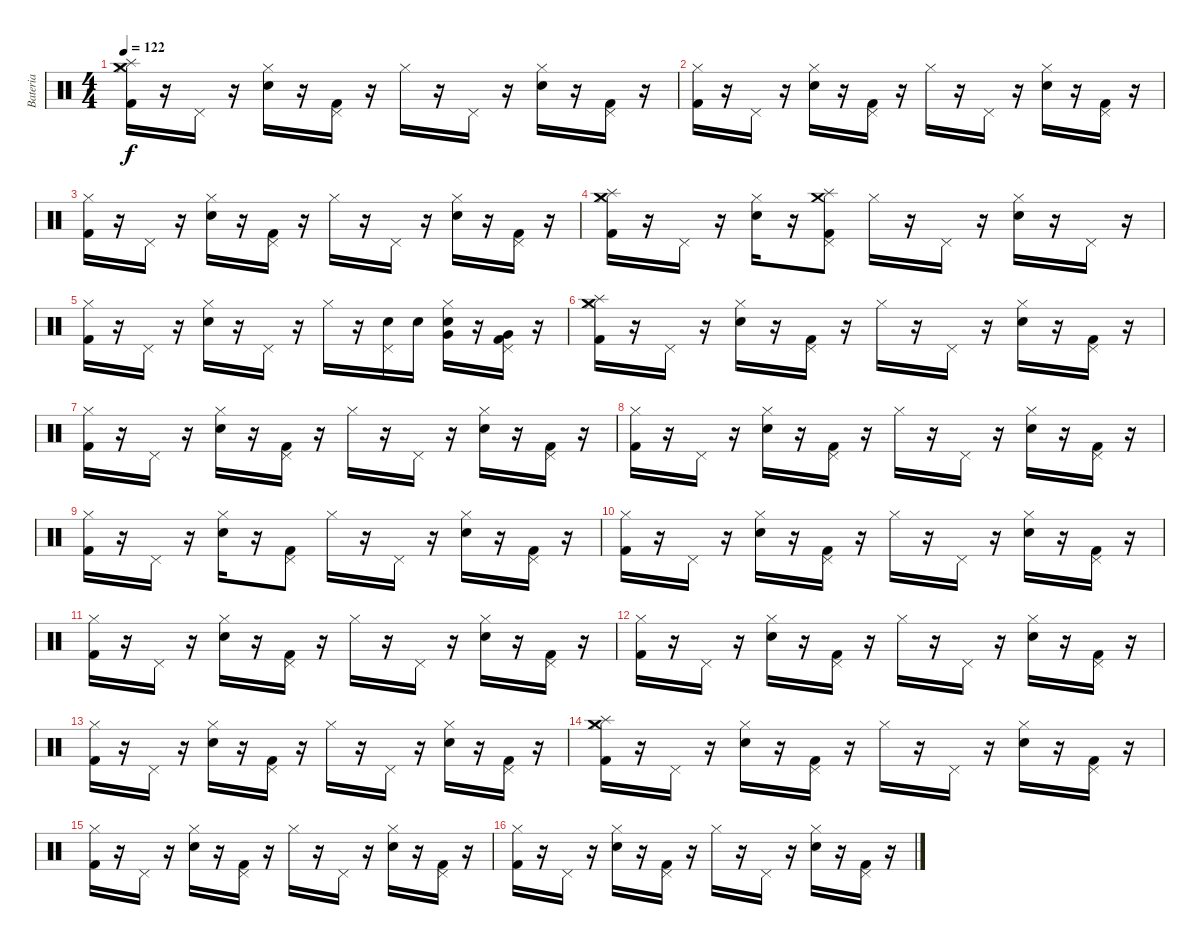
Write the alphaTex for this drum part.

\track ("Bateria" "Bateria") {instrument percussion}
\staff {score}
\articulation defaults
\ts (4 4)
\tempo 122
\clef neutral
\ks c
("Hi-Hat (closed)" "Crash medium (hit)" "Splash (hit)" "Kick (hit) 2").16{dy f} r.16 "Pedal Hi-Hat (hit)".16 r.16 ("Snare (hit) 2" "Hi-Hat (closed)").16 r.16 ("Kick (hit) 2" "Pedal Hi-Hat (hit)").16 r.16 "Hi-Hat (closed)".16 r.16 "Pedal Hi-Hat (hit)".16 r.16 ("Snare (hit) 2" "Hi-Hat (closed)").16 r.16 ("Kick (hit) 2" "Pedal Hi-Hat (hit)").16 r.16 |
("Kick (hit) 2" "Hi-Hat (closed)").16 r.16 "Pedal Hi-Hat (hit)".16 r.16 ("Hi-Hat (closed)" "Snare (hit) 2").16 r.16 ("Pedal Hi-Hat (hit)" "Kick (hit) 2").16 r.16 "Hi-Hat (closed)".16 r.16 "Pedal Hi-Hat (hit)".16 r.16 ("Snare (hit) 2" "Hi-Hat (closed)").16 r.16 ("Kick (hit) 2" "Pedal Hi-Hat (hit)").16 r.16 |
("Kick (hit) 2" "Hi-Hat (closed)").16 r.16 "Pedal Hi-Hat (hit)".16 r.16 ("Snare (hit) 2" "Hi-Hat (closed)").16 r.16 ("Pedal Hi-Hat (hit)" "Kick (hit) 2").16 r.16 "Hi-Hat (closed)".16 r.16 "Pedal Hi-Hat (hit)".16 r.16 ("Snare (hit) 2" "Hi-Hat (closed)").16 r.16 ("Kick (hit) 2" "Pedal Hi-Hat (hit)").16 r.16 |
("Kick (hit) 2" "Hi-Hat (closed)" "Crash medium (hit)" "Splash (hit)").16 r.16 "Pedal Hi-Hat (hit)".16 r.16 ("Snare (hit) 2" "Hi-Hat (closed)").16 r.16 ("Kick (hit) 2" "Pedal Hi-Hat (hit)" "Crash medium (hit)" "Splash (hit)").8 "Hi-Hat (closed)".16 r.16 "Pedal Hi-Hat (hit)".16 r.16 ("Hi-Hat (closed)" "Snare (hit) 2").16 r.16 "Pedal Hi-Hat (hit)".16 r.16 |
("Kick (hit) 2" "Hi-Hat (closed)").16 r.16 "Pedal Hi-Hat (hit)".16 r.16 ("Snare (hit) 2" "Hi-Hat (closed)").16 r.16 "Pedal Hi-Hat (hit)".16 r.16 "Hi-Hat (closed)".16 r.16 ("Pedal Hi-Hat (hit)" "Snare (hit) 2").16 "Snare (hit) 2".16 ("Snare (hit) 2" "Hi-Hat (closed)" "Very Low Tom (hit)").16 r.16 ("Very Low Tom (hit)" "Pedal Hi-Hat (hit)" "Kick (hit) 2").16 r.16 |
("Hi-Hat (closed)" "Crash medium (hit)" "Splash (hit)" "Kick (hit) 2").16 r.16 "Pedal Hi-Hat (hit)".16 r.16 ("Snare (hit) 2" "Hi-Hat (closed)").16 r.16 ("Kick (hit) 2" "Pedal Hi-Hat (hit)").16 r.16 "Hi-Hat (closed)".16 r.16 "Pedal Hi-Hat (hit)".16 r.16 ("Snare (hit) 2" "Hi-Hat (closed)").16 r.16 ("Kick (hit) 2" "Pedal Hi-Hat (hit)").16 r.16 |
("Kick (hit) 2" "Hi-Hat (closed)").16 r.16 "Pedal Hi-Hat (hit)".16 r.16 ("Hi-Hat (closed)" "Snare (hit) 2").16 r.16 ("Pedal Hi-Hat (hit)" "Kick (hit) 2").16 r.16 "Hi-Hat (closed)".16 r.16 "Pedal Hi-Hat (hit)".16 r.16 ("Snare (hit) 2" "Hi-Hat (closed)").16 r.16 ("Kick (hit) 2" "Pedal Hi-Hat (hit)").16 r.16 |
("Kick (hit) 2" "Hi-Hat (closed)").16 r.16 "Pedal Hi-Hat (hit)".16 r.16 ("Snare (hit) 2" "Hi-Hat (closed)").16 r.16 ("Pedal Hi-Hat (hit)" "Kick (hit) 2").16 r.16 "Hi-Hat (closed)".16 r.16 "Pedal Hi-Hat (hit)".16 r.16 ("Snare (hit) 2" "Hi-Hat (closed)").16 r.16 ("Kick (hit) 2" "Pedal Hi-Hat (hit)").16 r.16 |
("Kick (hit) 2" "Hi-Hat (closed)").16 r.16 "Pedal Hi-Hat (hit)".16 r.16 ("Snare (hit) 2" "Hi-Hat (closed)").16 r.16 ("Kick (hit) 2" "Pedal Hi-Hat (hit)").8 "Hi-Hat (closed)".16 r.16 "Pedal Hi-Hat (hit)".16 r.16 ("Hi-Hat (closed)" "Snare (hit) 2").16 r.16 ("Pedal Hi-Hat (hit)" "Kick (hit) 2").16 r.16 |
("Kick (hit) 2" "Hi-Hat (closed)").16 r.16 "Pedal Hi-Hat (hit)".16 r.16 ("Snare (hit) 2" "Hi-Hat (closed)").16 r.16 ("Kick (hit) 2" "Pedal Hi-Hat (hit)").16 r.16 "Hi-Hat (closed)".16 r.16 "Pedal Hi-Hat (hit)".16 r.16 ("Snare (hit) 2" "Hi-Hat (closed)").16 r.16 ("Pedal Hi-Hat (hit)" "Kick (hit) 2").16 r.16 |
("Hi-Hat (closed)" "Kick (hit) 2").16 r.16 "Pedal Hi-Hat (hit)".16 r.16 ("Snare (hit) 2" "Hi-Hat (closed)").16 r.16 ("Kick (hit) 2" "Pedal Hi-Hat (hit)").16 r.16 "Hi-Hat (closed)".16 r.16 "Pedal Hi-Hat (hit)".16 r.16 ("Snare (hit) 2" "Hi-Hat (closed)").16 r.16 ("Kick (hit) 2" "Pedal Hi-Hat (hit)").16 r.16 |
("Kick (hit) 2" "Hi-Hat (closed)").16 r.16 "Pedal Hi-Hat (hit)".16 r.16 ("Hi-Hat (closed)" "Snare (hit) 2").16 r.16 ("Pedal Hi-Hat (hit)" "Kick (hit) 2").16 r.16 "Hi-Hat (closed)".16 r.16 "Pedal Hi-Hat (hit)".16 r.16 ("Snare (hit) 2" "Hi-Hat (closed)").16 r.16 ("Kick (hit) 2" "Pedal Hi-Hat (hit)").16 r.16 |
("Kick (hit) 2" "Hi-Hat (closed)").16 r.16 "Pedal Hi-Hat (hit)".16 r.16 ("Snare (hit) 2" "Hi-Hat (closed)").16 r.16 ("Pedal Hi-Hat (hit)" "Kick (hit) 2").16 r.16 "Hi-Hat (closed)".16 r.16 "Pedal Hi-Hat (hit)".16 r.16 ("Snare (hit) 2" "Hi-Hat (closed)").16 r.16 ("Kick (hit) 2" "Pedal Hi-Hat (hit)").16 r.16 |
("Kick (hit) 2" "Splash (hit)" "Crash medium (hit)" "Hi-Hat (closed)").16 r.16 "Pedal Hi-Hat (hit)".16 r.16 ("Snare (hit) 2" "Hi-Hat (closed)").16 r.16 ("Kick (hit) 2" "Pedal Hi-Hat (hit)").16 r.16 "Hi-Hat (closed)".16 r.16 "Pedal Hi-Hat (hit)".16 r.16 ("Hi-Hat (closed)" "Snare (hit) 2").16 r.16 ("Pedal Hi-Hat (hit)" "Kick (hit) 2").16 r.16 |
("Kick (hit) 2" "Hi-Hat (closed)").16 r.16 "Pedal Hi-Hat (hit)".16 r.16 ("Snare (hit) 2" "Hi-Hat (closed)").16 r.16 ("Kick (hit) 2" "Pedal Hi-Hat (hit)").16 r.16 "Hi-Hat (closed)".16 r.16 "Pedal Hi-Hat (hit)".16 r.16 ("Snare (hit) 2" "Hi-Hat (closed)").16 r.16 ("Pedal Hi-Hat (hit)" "Kick (hit) 2").16 r.16 |
("Hi-Hat (closed)" "Kick (hit) 2").16 r.16 "Pedal Hi-Hat (hit)".16 r.16 ("Snare (hit) 2" "Hi-Hat (closed)").16 r.16 ("Kick (hit) 2" "Pedal Hi-Hat (hit)").16 r.16 "Hi-Hat (closed)".16 r.16 "Pedal Hi-Hat (hit)".16 r.16 ("Snare (hit) 2" "Hi-Hat (closed)").16 r.16 ("Kick (hit) 2" "Pedal Hi-Hat (hit)").16 r.16
